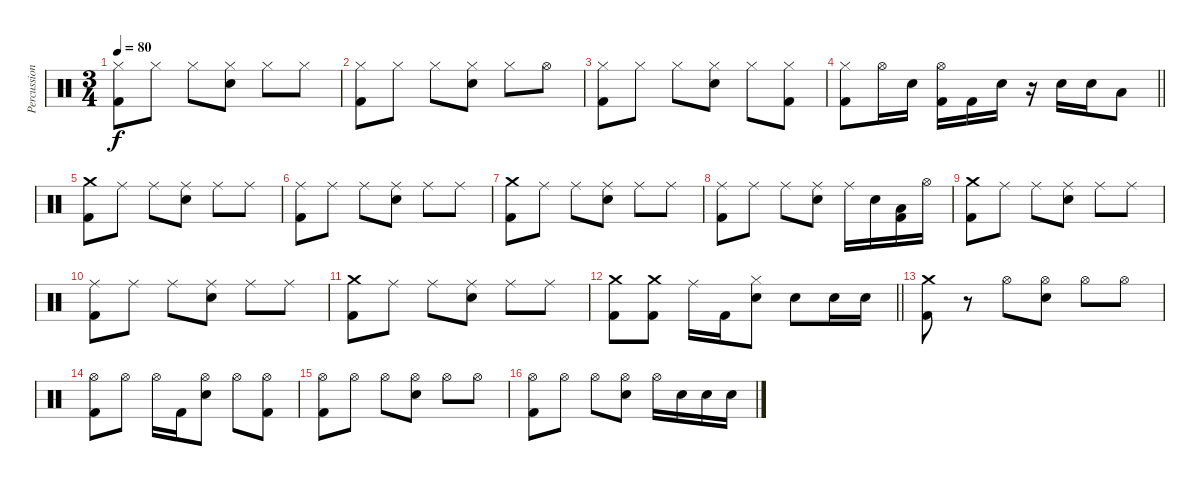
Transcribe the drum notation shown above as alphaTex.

\track ("Percussion" "Percussion") {instrument percussion}
\staff {score}
\articulation defaults
\ts (3 4)
\tempo 80
\clef neutral
\ks c
("Hi-Hat (closed)" "Kick (hit) 2").8{dy f} "Hi-Hat (closed)".8 "Hi-Hat (closed)".8 ("Hi-Hat (closed)" "Snare (hit) 2").8 "Hi-Hat (closed)".8 "Hi-Hat (closed)".8 |
("Hi-Hat (closed)" "Kick (hit) 2").8 "Hi-Hat (closed)".8 "Hi-Hat (closed)".8 ("Hi-Hat (closed)" "Snare (hit) 2").8 "Hi-Hat (closed)".8 "Hi-Hat (open)".8 |
("Hi-Hat (closed)" "Kick (hit) 2").8 "Hi-Hat (closed)".8 "Hi-Hat (closed)".8 ("Hi-Hat (closed)" "Snare (hit) 2").8 "Hi-Hat (closed)".8 ("Hi-Hat (closed)" "Kick (hit) 2").8 |
\barLineRight lightlight
("Hi-Hat (closed)" "Kick (hit) 2").8 "Hi-Hat (open)".16 "Snare (hit) 2".16 ("Hi-Hat (open)" "Kick (hit) 2").16 "Kick (hit) 2".16 "Snare (hit) 2".16 r.16 "Snare (hit) 2".16 "Snare (hit) 2".16 "Low Tom (hit)".8 |
("Crash medium (hit)" "Kick (hit) 2").8 "Ride (middle)".8 "Ride (middle)".8 ("Ride (middle)" "Snare (hit) 2").8 "Ride (middle)".8 "Ride (middle)".8 |
("Ride (middle)" "Kick (hit) 2").8 "Ride (middle)".8 "Ride (middle)".8 ("Ride (middle)" "Snare (hit) 2").8 "Ride (middle)".8 "Ride (middle)".8 |
("Crash medium (hit)" "Kick (hit) 2").8 "Ride (middle)".8 "Ride (middle)".8 ("Ride (middle)" "Snare (hit) 2").8 "Ride (middle)".8 "Ride (middle)".8 |
("Ride (middle)" "Kick (hit) 2").8 "Ride (middle)".8 "Ride (middle)".8 ("Ride (middle)" "Snare (hit) 2").8 "Ride (middle)".16 "Snare (hit) 2".16 ("Low Tom (hit)" "Kick (hit) 2").16 "Hi-Hat (open)".16 |
("Crash medium (hit)" "Kick (hit) 2").8 "Ride (middle)".8 "Ride (middle)".8 ("Ride (middle)" "Snare (hit) 2").8 "Ride (middle)".8 "Ride (middle)".8 |
("Ride (middle)" "Kick (hit) 2").8 "Ride (middle)".8 "Ride (middle)".8 ("Ride (middle)" "Snare (hit) 2").8 "Ride (middle)".8 "Ride (middle)".8 |
("Crash medium (hit)" "Kick (hit) 2").8 "Ride (middle)".8 "Ride (middle)".8 ("Ride (middle)" "Snare (hit) 2").8 "Ride (middle)".8 "Ride (middle)".8 |
\barLineRight lightlight
("Crash medium (hit)" "Kick (hit) 2").8 ("Crash medium (hit)" "Kick (hit) 2").8 "Ride (middle)".16 "Kick (hit) 2".16 ("Hi-Hat (closed)" "Snare (hit) 2").8 "Snare (hit) 2".8 "Snare (hit) 2".16 "Snare (hit) 2".16 |
("Crash medium (hit)" "Kick (hit) 2").8 r.8 "Hi-Hat (open)".8 ("Hi-Hat (open)" "Snare (hit) 2").8 "Hi-Hat (open)".8 "Hi-Hat (open)".8 |
("Hi-Hat (open)" "Kick (hit) 2").8 "Hi-Hat (open)".8 "Hi-Hat (open)".16 "Kick (hit) 2".16 ("Hi-Hat (open)" "Snare (hit) 2").8 "Hi-Hat (open)".8 ("Hi-Hat (open)" "Kick (hit) 2").8 |
("Hi-Hat (open)" "Kick (hit) 2").8 "Hi-Hat (open)".8 "Hi-Hat (open)".8 ("Hi-Hat (open)" "Snare (hit) 2").8 "Hi-Hat (open)".8 "Hi-Hat (open)".8 |
("Hi-Hat (open)" "Kick (hit) 2").8 "Hi-Hat (open)".8 "Hi-Hat (open)".8 ("Hi-Hat (open)" "Snare (hit) 2").8 "Hi-Hat (open)".16 "Snare (hit) 2".16 "Snare (hit) 2".16 "Snare (hit) 2".16
